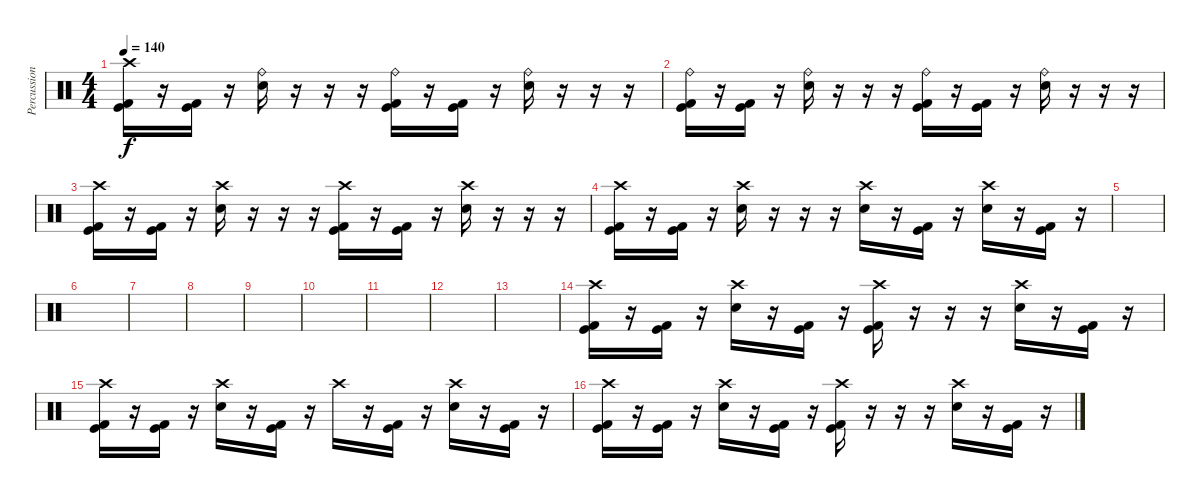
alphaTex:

\track ("Percussion" "Percussion") {instrument percussion}
\staff {score}
\articulation defaults
\ts (4 4)
\tempo 140
\clef neutral
\ks c
("Crash high (hit)" "Kick (hit)" "Kick (hit) 2").16{dy f} r.16 ("Kick (hit)" "Kick (hit) 2").16 r.16 ("Ride (bell)" "Electric Snare (hit)").16 r.16 r.16 r.16 ("Ride (bell)" "Kick (hit)" "Kick (hit) 2").16 r.16 ("Kick (hit)" "Kick (hit) 2").16 r.16 ("Ride (bell)" "Electric Snare (hit)").16 r.16 r.16 r.16 |
("Ride (bell)" "Kick (hit)" "Kick (hit) 2").16 r.16 ("Kick (hit)" "Kick (hit) 2").16 r.16 ("Ride (bell)" "Electric Snare (hit)").16 r.16 r.16 r.16 ("Ride (bell)" "Kick (hit)" "Kick (hit) 2").16 r.16 ("Kick (hit)" "Kick (hit) 2").16 r.16 ("Ride (bell)" "Electric Snare (hit)").16 r.16 r.16 r.16 |
("Crash high (hit)" "Kick (hit)" "Kick (hit) 2").16 r.16 ("Kick (hit)" "Kick (hit) 2").16 r.16 ("Crash high (hit)" "Electric Snare (hit)").16 r.16 r.16 r.16 ("Crash high (hit)" "Kick (hit)" "Kick (hit) 2").16 r.16 ("Kick (hit)" "Kick (hit) 2").16 r.16 ("Crash high (hit)" "Electric Snare (hit)").16 r.16 r.16 r.16 |
("Crash high (hit)" "Kick (hit)" "Kick (hit) 2").16 r.16 ("Kick (hit)" "Kick (hit) 2").16 r.16 ("Crash high (hit)" "Electric Snare (hit)").16 r.16 r.16 r.16 ("Crash high (hit)" "Electric Snare (hit)").16 r.16 ("Kick (hit)" "Kick (hit) 2").16 r.16 ("Crash high (hit)" "Electric Snare (hit)").16 r.16 ("Kick (hit)" "Kick (hit) 2").16 r.16 |
|
|
|
|
|
|
|
|
|
("Crash high (hit)" "Kick (hit)" "Kick (hit) 2").16 r.16 ("Kick (hit)" "Kick (hit) 2").16 r.16 ("Crash high (hit)" "Electric Snare (hit)").16 r.16 ("Kick (hit)" "Kick (hit) 2").16 r.16 ("Crash high (hit)" "Kick (hit)" "Kick (hit) 2").16 r.16 r.16 r.16 ("Crash high (hit)" "Electric Snare (hit)").16 r.16 ("Kick (hit)" "Kick (hit) 2").16 r.16 |
("Crash high (hit)" "Kick (hit)" "Kick (hit) 2").16 r.16 ("Kick (hit)" "Kick (hit) 2").16 r.16 ("Crash high (hit)" "Electric Snare (hit)").16 r.16 ("Kick (hit)" "Kick (hit) 2").16 r.16 "Crash high (hit)".16 r.16 ("Kick (hit)" "Kick (hit) 2").16 r.16 ("Crash high (hit)" "Electric Snare (hit)").16 r.16 ("Kick (hit)" "Kick (hit) 2").16 r.16 |
("Crash high (hit)" "Kick (hit)" "Kick (hit) 2").16 r.16 ("Kick (hit)" "Kick (hit) 2").16 r.16 ("Crash high (hit)" "Electric Snare (hit)").16 r.16 ("Kick (hit)" "Kick (hit) 2").16 r.16 ("Crash high (hit)" "Kick (hit)" "Kick (hit) 2").16 r.16 r.16 r.16 ("Crash high (hit)" "Electric Snare (hit)").16 r.16 ("Kick (hit)" "Kick (hit) 2").16 r.16
